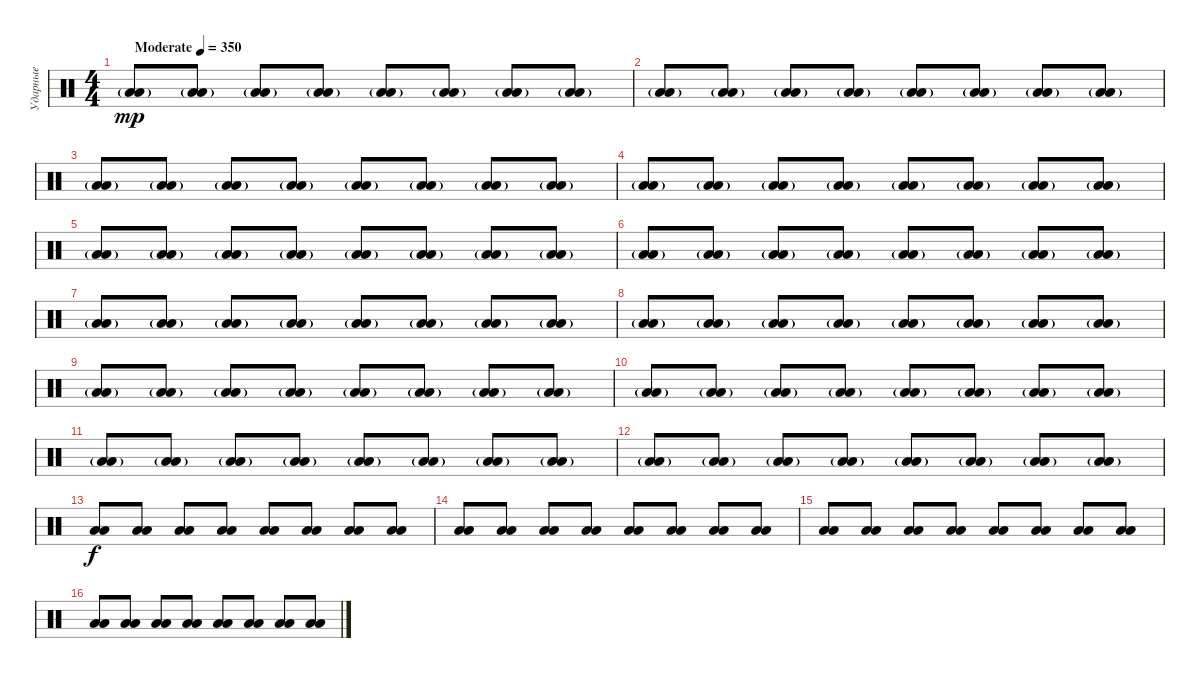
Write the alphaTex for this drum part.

\track ("Ударные" "Ударные") {instrument percussion}
\staff {score}
\articulation defaults
\ts (4 4)
\tempo (350 "Moderate")
\clef neutral
\ks c
("Low Floor Tom (hit)"{g} "Low Floor Tom (hit)"{g}).8{dy mp} ("Low Floor Tom (hit)"{g} "Low Floor Tom (hit)"{g}).8 ("Low Floor Tom (hit)"{g} "Low Floor Tom (hit)"{g}).8 ("Low Floor Tom (hit)"{g} "Low Floor Tom (hit)"{g}).8 ("Low Floor Tom (hit)"{g} "Low Floor Tom (hit)"{g}).8 ("Low Floor Tom (hit)"{g} "Low Floor Tom (hit)"{g}).8 ("Low Floor Tom (hit)"{g} "Low Floor Tom (hit)"{g}).8 ("Low Floor Tom (hit)"{g} "Low Floor Tom (hit)"{g}).8 |
("Low Floor Tom (hit)"{g} "Low Floor Tom (hit)"{g}).8 ("Low Floor Tom (hit)"{g} "Low Floor Tom (hit)"{g}).8 ("Low Floor Tom (hit)"{g} "Low Floor Tom (hit)"{g}).8 ("Low Floor Tom (hit)"{g} "Low Floor Tom (hit)"{g}).8 ("Low Floor Tom (hit)"{g} "Low Floor Tom (hit)"{g}).8 ("Low Floor Tom (hit)"{g} "Low Floor Tom (hit)"{g}).8 ("Low Floor Tom (hit)"{g} "Low Floor Tom (hit)"{g}).8 ("Low Floor Tom (hit)"{g} "Low Floor Tom (hit)"{g}).8 |
("Low Floor Tom (hit)"{g} "Low Floor Tom (hit)"{g}).8 ("Low Floor Tom (hit)"{g} "Low Floor Tom (hit)"{g}).8 ("Low Floor Tom (hit)"{g} "Low Floor Tom (hit)"{g}).8 ("Low Floor Tom (hit)"{g} "Low Floor Tom (hit)"{g}).8 ("Low Floor Tom (hit)"{g} "Low Floor Tom (hit)"{g}).8 ("Low Floor Tom (hit)"{g} "Low Floor Tom (hit)"{g}).8 ("Low Floor Tom (hit)"{g} "Low Floor Tom (hit)"{g}).8 ("Low Floor Tom (hit)"{g} "Low Floor Tom (hit)"{g}).8 |
("Low Floor Tom (hit)"{g} "Low Floor Tom (hit)"{g}).8 ("Low Floor Tom (hit)"{g} "Low Floor Tom (hit)"{g}).8 ("Low Floor Tom (hit)"{g} "Low Floor Tom (hit)"{g}).8 ("Low Floor Tom (hit)"{g} "Low Floor Tom (hit)"{g}).8 ("Low Floor Tom (hit)"{g} "Low Floor Tom (hit)"{g}).8 ("Low Floor Tom (hit)"{g} "Low Floor Tom (hit)"{g}).8 ("Low Floor Tom (hit)"{g} "Low Floor Tom (hit)"{g}).8 ("Low Floor Tom (hit)"{g} "Low Floor Tom (hit)"{g}).8 |
("Low Floor Tom (hit)"{g} "Low Floor Tom (hit)"{g}).8 ("Low Floor Tom (hit)"{g} "Low Floor Tom (hit)"{g}).8 ("Low Floor Tom (hit)"{g} "Low Floor Tom (hit)"{g}).8 ("Low Floor Tom (hit)"{g} "Low Floor Tom (hit)"{g}).8 ("Low Floor Tom (hit)"{g} "Low Floor Tom (hit)"{g}).8 ("Low Floor Tom (hit)"{g} "Low Floor Tom (hit)"{g}).8 ("Low Floor Tom (hit)"{g} "Low Floor Tom (hit)"{g}).8 ("Low Floor Tom (hit)"{g} "Low Floor Tom (hit)"{g}).8 |
("Low Floor Tom (hit)"{g} "Low Floor Tom (hit)"{g}).8 ("Low Floor Tom (hit)"{g} "Low Floor Tom (hit)"{g}).8 ("Low Floor Tom (hit)"{g} "Low Floor Tom (hit)"{g}).8 ("Low Floor Tom (hit)"{g} "Low Floor Tom (hit)"{g}).8 ("Low Floor Tom (hit)"{g} "Low Floor Tom (hit)"{g}).8 ("Low Floor Tom (hit)"{g} "Low Floor Tom (hit)"{g}).8 ("Low Floor Tom (hit)"{g} "Low Floor Tom (hit)"{g}).8 ("Low Floor Tom (hit)"{g} "Low Floor Tom (hit)"{g}).8 |
("Low Floor Tom (hit)"{g} "Low Floor Tom (hit)"{g}).8 ("Low Floor Tom (hit)"{g} "Low Floor Tom (hit)"{g}).8 ("Low Floor Tom (hit)"{g} "Low Floor Tom (hit)"{g}).8 ("Low Floor Tom (hit)"{g} "Low Floor Tom (hit)"{g}).8 ("Low Floor Tom (hit)"{g} "Low Floor Tom (hit)"{g}).8 ("Low Floor Tom (hit)"{g} "Low Floor Tom (hit)"{g}).8 ("Low Floor Tom (hit)"{g} "Low Floor Tom (hit)"{g}).8 ("Low Floor Tom (hit)"{g} "Low Floor Tom (hit)"{g}).8 |
("Low Floor Tom (hit)"{g} "Low Floor Tom (hit)"{g}).8 ("Low Floor Tom (hit)"{g} "Low Floor Tom (hit)"{g}).8 ("Low Floor Tom (hit)"{g} "Low Floor Tom (hit)"{g}).8 ("Low Floor Tom (hit)"{g} "Low Floor Tom (hit)"{g}).8 ("Low Floor Tom (hit)"{g} "Low Floor Tom (hit)"{g}).8 ("Low Floor Tom (hit)"{g} "Low Floor Tom (hit)"{g}).8 ("Low Floor Tom (hit)"{g} "Low Floor Tom (hit)"{g}).8 ("Low Floor Tom (hit)"{g} "Low Floor Tom (hit)"{g}).8 |
("Low Floor Tom (hit)"{g} "Low Floor Tom (hit)"{g}).8 ("Low Floor Tom (hit)"{g} "Low Floor Tom (hit)"{g}).8 ("Low Floor Tom (hit)"{g} "Low Floor Tom (hit)"{g}).8 ("Low Floor Tom (hit)"{g} "Low Floor Tom (hit)"{g}).8 ("Low Floor Tom (hit)"{g} "Low Floor Tom (hit)"{g}).8 ("Low Floor Tom (hit)"{g} "Low Floor Tom (hit)"{g}).8 ("Low Floor Tom (hit)"{g} "Low Floor Tom (hit)"{g}).8 ("Low Floor Tom (hit)"{g} "Low Floor Tom (hit)"{g}).8 |
("Low Floor Tom (hit)"{g} "Low Floor Tom (hit)"{g}).8 ("Low Floor Tom (hit)"{g} "Low Floor Tom (hit)"{g}).8 ("Low Floor Tom (hit)"{g} "Low Floor Tom (hit)"{g}).8 ("Low Floor Tom (hit)"{g} "Low Floor Tom (hit)"{g}).8 ("Low Floor Tom (hit)"{g} "Low Floor Tom (hit)"{g}).8 ("Low Floor Tom (hit)"{g} "Low Floor Tom (hit)"{g}).8 ("Low Floor Tom (hit)"{g} "Low Floor Tom (hit)"{g}).8 ("Low Floor Tom (hit)"{g} "Low Floor Tom (hit)"{g}).8 |
("Low Floor Tom (hit)"{g} "Low Floor Tom (hit)"{g}).8 ("Low Floor Tom (hit)"{g} "Low Floor Tom (hit)"{g}).8 ("Low Floor Tom (hit)"{g} "Low Floor Tom (hit)"{g}).8 ("Low Floor Tom (hit)"{g} "Low Floor Tom (hit)"{g}).8 ("Low Floor Tom (hit)"{g} "Low Floor Tom (hit)"{g}).8 ("Low Floor Tom (hit)"{g} "Low Floor Tom (hit)"{g}).8 ("Low Floor Tom (hit)"{g} "Low Floor Tom (hit)"{g}).8 ("Low Floor Tom (hit)"{g} "Low Floor Tom (hit)"{g}).8 |
("Low Floor Tom (hit)"{g} "Low Floor Tom (hit)"{g}).8 ("Low Floor Tom (hit)"{g} "Low Floor Tom (hit)"{g}).8 ("Low Floor Tom (hit)"{g} "Low Floor Tom (hit)"{g}).8 ("Low Floor Tom (hit)"{g} "Low Floor Tom (hit)"{g}).8 ("Low Floor Tom (hit)"{g} "Low Floor Tom (hit)"{g}).8 ("Low Floor Tom (hit)"{g} "Low Floor Tom (hit)"{g}).8 ("Low Floor Tom (hit)"{g} "Low Floor Tom (hit)"{g}).8 ("Low Floor Tom (hit)"{g} "Low Floor Tom (hit)"{g}).8 |
("Low Floor Tom (hit)" "Low Floor Tom (hit)").8{dy f} ("Low Floor Tom (hit)" "Low Floor Tom (hit)").8 ("Low Floor Tom (hit)" "Low Floor Tom (hit)").8 ("Low Floor Tom (hit)" "Low Floor Tom (hit)").8 ("Low Floor Tom (hit)" "Low Floor Tom (hit)").8 ("Low Floor Tom (hit)" "Low Floor Tom (hit)").8 ("Low Floor Tom (hit)" "Low Floor Tom (hit)").8 ("Low Floor Tom (hit)" "Low Floor Tom (hit)").8 |
("Low Floor Tom (hit)" "Low Floor Tom (hit)").8 ("Low Floor Tom (hit)" "Low Floor Tom (hit)").8 ("Low Floor Tom (hit)" "Low Floor Tom (hit)").8 ("Low Floor Tom (hit)" "Low Floor Tom (hit)").8 ("Low Floor Tom (hit)" "Low Floor Tom (hit)").8 ("Low Floor Tom (hit)" "Low Floor Tom (hit)").8 ("Low Floor Tom (hit)" "Low Floor Tom (hit)").8 ("Low Floor Tom (hit)" "Low Floor Tom (hit)").8 |
("Low Floor Tom (hit)" "Low Floor Tom (hit)").8 ("Low Floor Tom (hit)" "Low Floor Tom (hit)").8 ("Low Floor Tom (hit)" "Low Floor Tom (hit)").8 ("Low Floor Tom (hit)" "Low Floor Tom (hit)").8 ("Low Floor Tom (hit)" "Low Floor Tom (hit)").8 ("Low Floor Tom (hit)" "Low Floor Tom (hit)").8 ("Low Floor Tom (hit)" "Low Floor Tom (hit)").8 ("Low Floor Tom (hit)" "Low Floor Tom (hit)").8 |
("Low Floor Tom (hit)" "Low Floor Tom (hit)").8 ("Low Floor Tom (hit)" "Low Floor Tom (hit)").8 ("Low Floor Tom (hit)" "Low Floor Tom (hit)").8 ("Low Floor Tom (hit)" "Low Floor Tom (hit)").8 ("Low Floor Tom (hit)" "Low Floor Tom (hit)").8 ("Low Floor Tom (hit)" "Low Floor Tom (hit)").8 ("Low Floor Tom (hit)" "Low Floor Tom (hit)").8 ("Low Floor Tom (hit)" "Low Floor Tom (hit)").8
